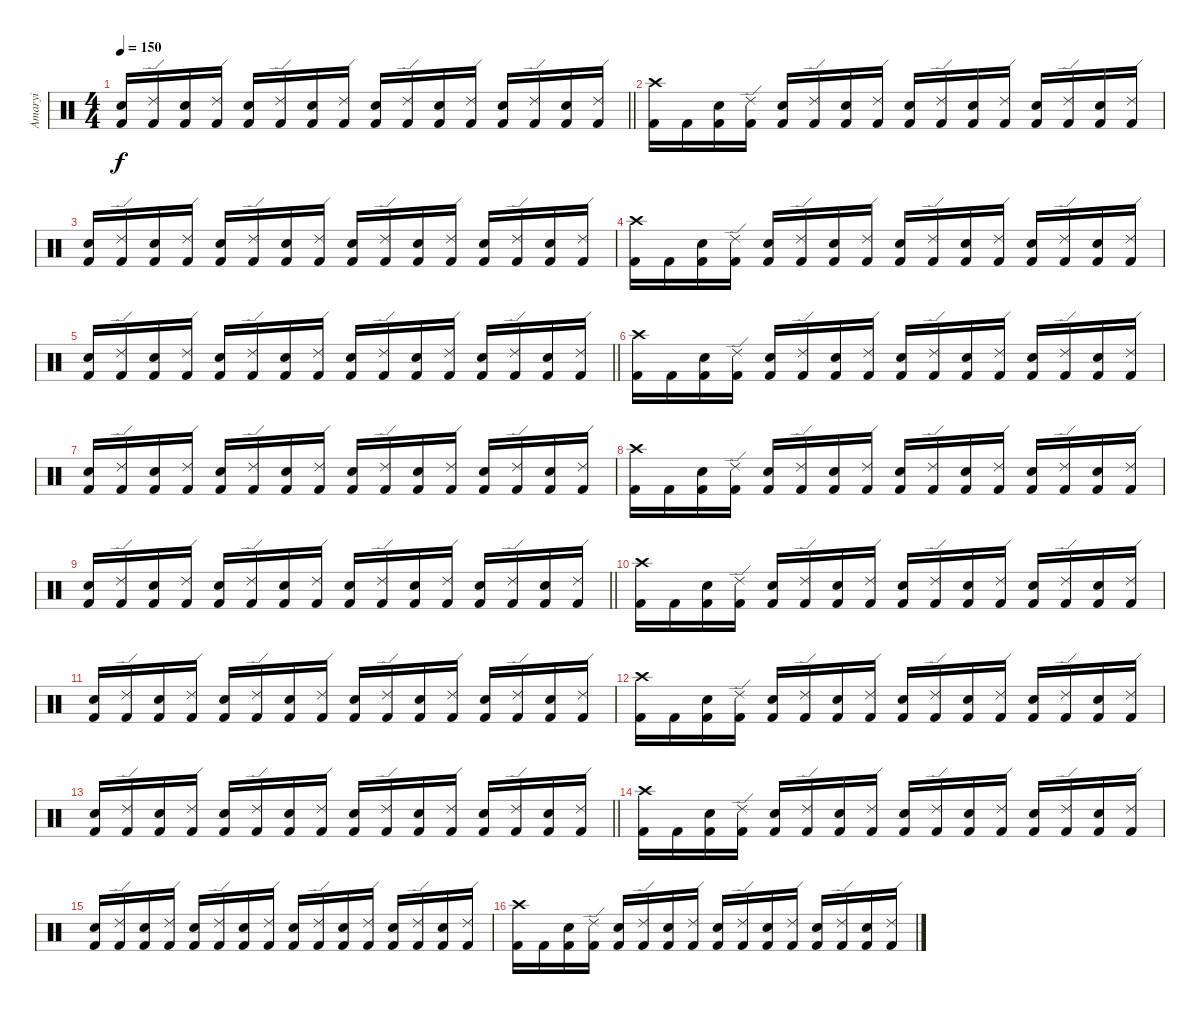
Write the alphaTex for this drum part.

\track ("Amaryi" "Amaryi") {instrument percussion}
\staff {score}
\articulation defaults
\ts (4 4)
\tempo 150
\clef neutral
\barLineRight lightlight
\ks c
("Electric Snare (hit)" "Kick (hit) 2").16{dy f} ("Ride (edge) 2" "Kick (hit) 2").16 ("Electric Snare (hit)" "Kick (hit) 2").16 ("Ride (edge) 2" "Kick (hit) 2").16 ("Electric Snare (hit)" "Kick (hit) 2").16 ("Ride (edge) 2" "Kick (hit) 2").16 ("Electric Snare (hit)" "Kick (hit) 2").16 ("Ride (edge) 2" "Kick (hit) 2").16 ("Electric Snare (hit)" "Kick (hit) 2").16 ("Ride (edge) 2" "Kick (hit) 2").16 ("Electric Snare (hit)" "Kick (hit) 2").16 ("Ride (edge) 2" "Kick (hit) 2").16 ("Electric Snare (hit)" "Kick (hit) 2").16 ("Ride (edge) 2" "Kick (hit) 2").16 ("Electric Snare (hit)" "Kick (hit) 2").16 ("Ride (edge) 2" "Kick (hit) 2").16 |
("Crash high (hit)" "Kick (hit) 2").16 "Kick (hit) 2".16 ("Electric Snare (hit)" "Kick (hit) 2").16 ("Ride (edge) 2" "Kick (hit) 2").16 ("Electric Snare (hit)" "Kick (hit) 2").16 ("Ride (edge) 2" "Kick (hit) 2").16 ("Electric Snare (hit)" "Kick (hit) 2").16 ("Ride (edge) 2" "Kick (hit) 2").16 ("Electric Snare (hit)" "Kick (hit) 2").16 ("Ride (edge) 2" "Kick (hit) 2").16 ("Electric Snare (hit)" "Kick (hit) 2").16 ("Ride (edge) 2" "Kick (hit) 2").16 ("Electric Snare (hit)" "Kick (hit) 2").16 ("Ride (edge) 2" "Kick (hit) 2").16 ("Electric Snare (hit)" "Kick (hit) 2").16 ("Ride (edge) 2" "Kick (hit) 2").16 |
("Electric Snare (hit)" "Kick (hit) 2").16 ("Ride (edge) 2" "Kick (hit) 2").16 ("Electric Snare (hit)" "Kick (hit) 2").16 ("Ride (edge) 2" "Kick (hit) 2").16 ("Electric Snare (hit)" "Kick (hit) 2").16 ("Ride (edge) 2" "Kick (hit) 2").16 ("Electric Snare (hit)" "Kick (hit) 2").16 ("Ride (edge) 2" "Kick (hit) 2").16 ("Electric Snare (hit)" "Kick (hit) 2").16 ("Ride (edge) 2" "Kick (hit) 2").16 ("Electric Snare (hit)" "Kick (hit) 2").16 ("Ride (edge) 2" "Kick (hit) 2").16 ("Electric Snare (hit)" "Kick (hit) 2").16 ("Ride (edge) 2" "Kick (hit) 2").16 ("Electric Snare (hit)" "Kick (hit) 2").16 ("Ride (edge) 2" "Kick (hit) 2").16 |
("Crash high (hit)" "Kick (hit) 2").16 "Kick (hit) 2".16 ("Electric Snare (hit)" "Kick (hit) 2").16 ("Ride (edge) 2" "Kick (hit) 2").16 ("Electric Snare (hit)" "Kick (hit) 2").16 ("Ride (edge) 2" "Kick (hit) 2").16 ("Electric Snare (hit)" "Kick (hit) 2").16 ("Ride (edge) 2" "Kick (hit) 2").16 ("Electric Snare (hit)" "Kick (hit) 2").16 ("Ride (edge) 2" "Kick (hit) 2").16 ("Electric Snare (hit)" "Kick (hit) 2").16 ("Ride (edge) 2" "Kick (hit) 2").16 ("Electric Snare (hit)" "Kick (hit) 2").16 ("Ride (edge) 2" "Kick (hit) 2").16 ("Electric Snare (hit)" "Kick (hit) 2").16 ("Ride (edge) 2" "Kick (hit) 2").16 |
\barLineRight lightlight
("Electric Snare (hit)" "Kick (hit) 2").16 ("Ride (edge) 2" "Kick (hit) 2").16 ("Electric Snare (hit)" "Kick (hit) 2").16 ("Ride (edge) 2" "Kick (hit) 2").16 ("Electric Snare (hit)" "Kick (hit) 2").16 ("Ride (edge) 2" "Kick (hit) 2").16 ("Electric Snare (hit)" "Kick (hit) 2").16 ("Ride (edge) 2" "Kick (hit) 2").16 ("Electric Snare (hit)" "Kick (hit) 2").16 ("Ride (edge) 2" "Kick (hit) 2").16 ("Electric Snare (hit)" "Kick (hit) 2").16 ("Ride (edge) 2" "Kick (hit) 2").16 ("Electric Snare (hit)" "Kick (hit) 2").16 ("Ride (edge) 2" "Kick (hit) 2").16 ("Electric Snare (hit)" "Kick (hit) 2").16 ("Ride (edge) 2" "Kick (hit) 2").16 |
("Crash high (hit)" "Kick (hit) 2").16 "Kick (hit) 2".16 ("Electric Snare (hit)" "Kick (hit) 2").16 ("Ride (edge) 2" "Kick (hit) 2").16 ("Electric Snare (hit)" "Kick (hit) 2").16 ("Ride (edge) 2" "Kick (hit) 2").16 ("Electric Snare (hit)" "Kick (hit) 2").16 ("Ride (edge) 2" "Kick (hit) 2").16 ("Electric Snare (hit)" "Kick (hit) 2").16 ("Ride (edge) 2" "Kick (hit) 2").16 ("Electric Snare (hit)" "Kick (hit) 2").16 ("Ride (edge) 2" "Kick (hit) 2").16 ("Electric Snare (hit)" "Kick (hit) 2").16 ("Ride (edge) 2" "Kick (hit) 2").16 ("Electric Snare (hit)" "Kick (hit) 2").16 ("Ride (edge) 2" "Kick (hit) 2").16 |
("Electric Snare (hit)" "Kick (hit) 2").16 ("Ride (edge) 2" "Kick (hit) 2").16 ("Electric Snare (hit)" "Kick (hit) 2").16 ("Ride (edge) 2" "Kick (hit) 2").16 ("Electric Snare (hit)" "Kick (hit) 2").16 ("Ride (edge) 2" "Kick (hit) 2").16 ("Electric Snare (hit)" "Kick (hit) 2").16 ("Ride (edge) 2" "Kick (hit) 2").16 ("Electric Snare (hit)" "Kick (hit) 2").16 ("Ride (edge) 2" "Kick (hit) 2").16 ("Electric Snare (hit)" "Kick (hit) 2").16 ("Ride (edge) 2" "Kick (hit) 2").16 ("Electric Snare (hit)" "Kick (hit) 2").16 ("Ride (edge) 2" "Kick (hit) 2").16 ("Electric Snare (hit)" "Kick (hit) 2").16 ("Ride (edge) 2" "Kick (hit) 2").16 |
("Crash high (hit)" "Kick (hit) 2").16 "Kick (hit) 2".16 ("Electric Snare (hit)" "Kick (hit) 2").16 ("Ride (edge) 2" "Kick (hit) 2").16 ("Electric Snare (hit)" "Kick (hit) 2").16 ("Ride (edge) 2" "Kick (hit) 2").16 ("Electric Snare (hit)" "Kick (hit) 2").16 ("Ride (edge) 2" "Kick (hit) 2").16 ("Electric Snare (hit)" "Kick (hit) 2").16 ("Ride (edge) 2" "Kick (hit) 2").16 ("Electric Snare (hit)" "Kick (hit) 2").16 ("Ride (edge) 2" "Kick (hit) 2").16 ("Electric Snare (hit)" "Kick (hit) 2").16 ("Ride (edge) 2" "Kick (hit) 2").16 ("Electric Snare (hit)" "Kick (hit) 2").16 ("Ride (edge) 2" "Kick (hit) 2").16 |
\barLineRight lightlight
("Electric Snare (hit)" "Kick (hit) 2").16 ("Ride (edge) 2" "Kick (hit) 2").16 ("Electric Snare (hit)" "Kick (hit) 2").16 ("Ride (edge) 2" "Kick (hit) 2").16 ("Electric Snare (hit)" "Kick (hit) 2").16 ("Ride (edge) 2" "Kick (hit) 2").16 ("Electric Snare (hit)" "Kick (hit) 2").16 ("Ride (edge) 2" "Kick (hit) 2").16 ("Electric Snare (hit)" "Kick (hit) 2").16 ("Ride (edge) 2" "Kick (hit) 2").16 ("Electric Snare (hit)" "Kick (hit) 2").16 ("Ride (edge) 2" "Kick (hit) 2").16 ("Electric Snare (hit)" "Kick (hit) 2").16 ("Ride (edge) 2" "Kick (hit) 2").16 ("Electric Snare (hit)" "Kick (hit) 2").16 ("Ride (edge) 2" "Kick (hit) 2").16 |
("Crash high (hit)" "Kick (hit) 2").16 "Kick (hit) 2".16 ("Electric Snare (hit)" "Kick (hit) 2").16 ("Ride (edge) 2" "Kick (hit) 2").16 ("Electric Snare (hit)" "Kick (hit) 2").16 ("Ride (edge) 2" "Kick (hit) 2").16 ("Electric Snare (hit)" "Kick (hit) 2").16 ("Ride (edge) 2" "Kick (hit) 2").16 ("Electric Snare (hit)" "Kick (hit) 2").16 ("Ride (edge) 2" "Kick (hit) 2").16 ("Electric Snare (hit)" "Kick (hit) 2").16 ("Ride (edge) 2" "Kick (hit) 2").16 ("Electric Snare (hit)" "Kick (hit) 2").16 ("Ride (edge) 2" "Kick (hit) 2").16 ("Electric Snare (hit)" "Kick (hit) 2").16 ("Ride (edge) 2" "Kick (hit) 2").16 |
("Electric Snare (hit)" "Kick (hit) 2").16 ("Ride (edge) 2" "Kick (hit) 2").16 ("Electric Snare (hit)" "Kick (hit) 2").16 ("Ride (edge) 2" "Kick (hit) 2").16 ("Electric Snare (hit)" "Kick (hit) 2").16 ("Ride (edge) 2" "Kick (hit) 2").16 ("Electric Snare (hit)" "Kick (hit) 2").16 ("Ride (edge) 2" "Kick (hit) 2").16 ("Electric Snare (hit)" "Kick (hit) 2").16 ("Ride (edge) 2" "Kick (hit) 2").16 ("Electric Snare (hit)" "Kick (hit) 2").16 ("Ride (edge) 2" "Kick (hit) 2").16 ("Electric Snare (hit)" "Kick (hit) 2").16 ("Ride (edge) 2" "Kick (hit) 2").16 ("Electric Snare (hit)" "Kick (hit) 2").16 ("Ride (edge) 2" "Kick (hit) 2").16 |
("Crash high (hit)" "Kick (hit) 2").16 "Kick (hit) 2".16 ("Electric Snare (hit)" "Kick (hit) 2").16 ("Ride (edge) 2" "Kick (hit) 2").16 ("Electric Snare (hit)" "Kick (hit) 2").16 ("Ride (edge) 2" "Kick (hit) 2").16 ("Electric Snare (hit)" "Kick (hit) 2").16 ("Ride (edge) 2" "Kick (hit) 2").16 ("Electric Snare (hit)" "Kick (hit) 2").16 ("Ride (edge) 2" "Kick (hit) 2").16 ("Electric Snare (hit)" "Kick (hit) 2").16 ("Ride (edge) 2" "Kick (hit) 2").16 ("Electric Snare (hit)" "Kick (hit) 2").16 ("Ride (edge) 2" "Kick (hit) 2").16 ("Electric Snare (hit)" "Kick (hit) 2").16 ("Ride (edge) 2" "Kick (hit) 2").16 |
\barLineRight lightlight
("Electric Snare (hit)" "Kick (hit) 2").16 ("Ride (edge) 2" "Kick (hit) 2").16 ("Electric Snare (hit)" "Kick (hit) 2").16 ("Ride (edge) 2" "Kick (hit) 2").16 ("Electric Snare (hit)" "Kick (hit) 2").16 ("Ride (edge) 2" "Kick (hit) 2").16 ("Electric Snare (hit)" "Kick (hit) 2").16 ("Ride (edge) 2" "Kick (hit) 2").16 ("Electric Snare (hit)" "Kick (hit) 2").16 ("Ride (edge) 2" "Kick (hit) 2").16 ("Electric Snare (hit)" "Kick (hit) 2").16 ("Ride (edge) 2" "Kick (hit) 2").16 ("Electric Snare (hit)" "Kick (hit) 2").16 ("Ride (edge) 2" "Kick (hit) 2").16 ("Electric Snare (hit)" "Kick (hit) 2").16 ("Ride (edge) 2" "Kick (hit) 2").16 |
("Crash high (hit)" "Kick (hit) 2").16 "Kick (hit) 2".16 ("Electric Snare (hit)" "Kick (hit) 2").16 ("Ride (edge) 2" "Kick (hit) 2").16 ("Electric Snare (hit)" "Kick (hit) 2").16 ("Ride (edge) 2" "Kick (hit) 2").16 ("Electric Snare (hit)" "Kick (hit) 2").16 ("Ride (edge) 2" "Kick (hit) 2").16 ("Electric Snare (hit)" "Kick (hit) 2").16 ("Ride (edge) 2" "Kick (hit) 2").16 ("Electric Snare (hit)" "Kick (hit) 2").16 ("Ride (edge) 2" "Kick (hit) 2").16 ("Electric Snare (hit)" "Kick (hit) 2").16 ("Ride (edge) 2" "Kick (hit) 2").16 ("Electric Snare (hit)" "Kick (hit) 2").16 ("Ride (edge) 2" "Kick (hit) 2").16 |
("Electric Snare (hit)" "Kick (hit) 2").16 ("Ride (edge) 2" "Kick (hit) 2").16 ("Electric Snare (hit)" "Kick (hit) 2").16 ("Ride (edge) 2" "Kick (hit) 2").16 ("Electric Snare (hit)" "Kick (hit) 2").16 ("Ride (edge) 2" "Kick (hit) 2").16 ("Electric Snare (hit)" "Kick (hit) 2").16 ("Ride (edge) 2" "Kick (hit) 2").16 ("Electric Snare (hit)" "Kick (hit) 2").16 ("Ride (edge) 2" "Kick (hit) 2").16 ("Electric Snare (hit)" "Kick (hit) 2").16 ("Ride (edge) 2" "Kick (hit) 2").16 ("Electric Snare (hit)" "Kick (hit) 2").16 ("Ride (edge) 2" "Kick (hit) 2").16 ("Electric Snare (hit)" "Kick (hit) 2").16 ("Ride (edge) 2" "Kick (hit) 2").16 |
("Crash high (hit)" "Kick (hit) 2").16 "Kick (hit) 2".16 ("Electric Snare (hit)" "Kick (hit) 2").16 ("Ride (edge) 2" "Kick (hit) 2").16 ("Electric Snare (hit)" "Kick (hit) 2").16 ("Ride (edge) 2" "Kick (hit) 2").16 ("Electric Snare (hit)" "Kick (hit) 2").16 ("Ride (edge) 2" "Kick (hit) 2").16 ("Electric Snare (hit)" "Kick (hit) 2").16 ("Ride (edge) 2" "Kick (hit) 2").16 ("Electric Snare (hit)" "Kick (hit) 2").16 ("Ride (edge) 2" "Kick (hit) 2").16 ("Electric Snare (hit)" "Kick (hit) 2").16 ("Ride (edge) 2" "Kick (hit) 2").16 ("Electric Snare (hit)" "Kick (hit) 2").16 ("Ride (edge) 2" "Kick (hit) 2").16
